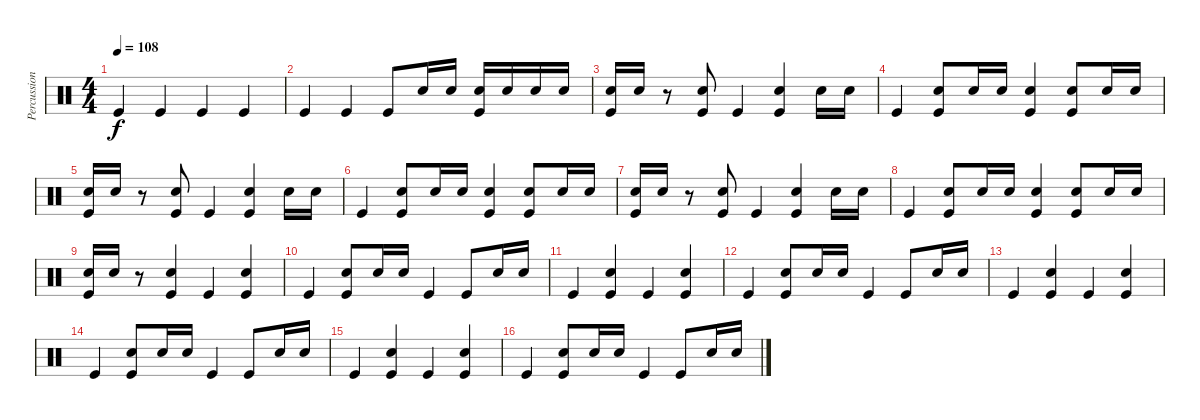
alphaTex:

\track ("Percussion" "Percussion") {instrument percussion}
\staff {score}
\articulation defaults
\ts (4 4)
\tempo 108
\clef neutral
\ks c "Kick (hit)".4{dy f} "Kick (hit)".4 "Kick (hit)".4 "Kick (hit)".4
|
"Kick (hit)".4 "Kick (hit)".4 "Kick (hit)".8 "Snare (hit) 2".16 "Snare (hit) 2".16 ("Snare (hit) 2" "Kick (hit)").16 "Snare (hit) 2".16 "Snare (hit) 2".16 "Snare (hit) 2".16 |
("Snare (hit) 2" "Kick (hit)").16 "Snare (hit) 2".16 r.8 ("Snare (hit) 2" "Kick (hit)").8 "Kick (hit)".4 ("Snare (hit) 2" "Kick (hit)").4 "Snare (hit) 2".16 "Snare (hit) 2".16 |
"Kick (hit)".4 ("Snare (hit) 2" "Kick (hit)").8 "Snare (hit) 2".16 "Snare (hit) 2".16 ("Snare (hit) 2" "Kick (hit)").4 ("Snare (hit) 2" "Kick (hit)").8 "Snare (hit) 2".16 "Snare (hit) 2".16 |
("Snare (hit) 2" "Kick (hit)").16 "Snare (hit) 2".16 r.8 ("Snare (hit) 2" "Kick (hit)").8 "Kick (hit)".4 ("Snare (hit) 2" "Kick (hit)").4 "Snare (hit) 2".16 "Snare (hit) 2".16 |
"Kick (hit)".4 ("Snare (hit) 2" "Kick (hit)").8 "Snare (hit) 2".16 "Snare (hit) 2".16 ("Snare (hit) 2" "Kick (hit)").4 ("Snare (hit) 2" "Kick (hit)").8 "Snare (hit) 2".16 "Snare (hit) 2".16 |
("Snare (hit) 2" "Kick (hit)").16 "Snare (hit) 2".16 r.8 ("Snare (hit) 2" "Kick (hit)").8 "Kick (hit)".4 ("Snare (hit) 2" "Kick (hit)").4 "Snare (hit) 2".16 "Snare (hit) 2".16 |
"Kick (hit)".4 ("Snare (hit) 2" "Kick (hit)").8 "Snare (hit) 2".16 "Snare (hit) 2".16 ("Snare (hit) 2" "Kick (hit)").4 ("Snare (hit) 2" "Kick (hit)").8 "Snare (hit) 2".16 "Snare (hit) 2".16 |
("Snare (hit) 2" "Kick (hit)").16 "Snare (hit) 2".16 r.8 ("Snare (hit) 2" "Kick (hit)").4 "Kick (hit)".4 ("Snare (hit) 2" "Kick (hit)").4 |
"Kick (hit)".4 ("Snare (hit) 2" "Kick (hit)").8 "Snare (hit) 2".16 "Snare (hit) 2".16 "Kick (hit)".4 "Kick (hit)".8 "Snare (hit) 2".16 "Snare (hit) 2".16 |
"Kick (hit)".4 ("Snare (hit) 2" "Kick (hit)").4 "Kick (hit)".4 ("Snare (hit) 2" "Kick (hit)").4 |
"Kick (hit)".4 ("Snare (hit) 2" "Kick (hit)").8 "Snare (hit) 2".16 "Snare (hit) 2".16 "Kick (hit)".4 "Kick (hit)".8 "Snare (hit) 2".16 "Snare (hit) 2".16 |
"Kick (hit)".4 ("Snare (hit) 2" "Kick (hit)").4 "Kick (hit)".4 ("Snare (hit) 2" "Kick (hit)").4 |
"Kick (hit)".4 ("Snare (hit) 2" "Kick (hit)").8 "Snare (hit) 2".16 "Snare (hit) 2".16 "Kick (hit)".4 "Kick (hit)".8 "Snare (hit) 2".16 "Snare (hit) 2".16 |
"Kick (hit)".4 ("Snare (hit) 2" "Kick (hit)").4 "Kick (hit)".4 ("Snare (hit) 2" "Kick (hit)").4 |
"Kick (hit)".4 ("Snare (hit) 2" "Kick (hit)").8 "Snare (hit) 2".16 "Snare (hit) 2".16 "Kick (hit)".4 "Kick (hit)".8 "Snare (hit) 2".16 "Snare (hit) 2".16
